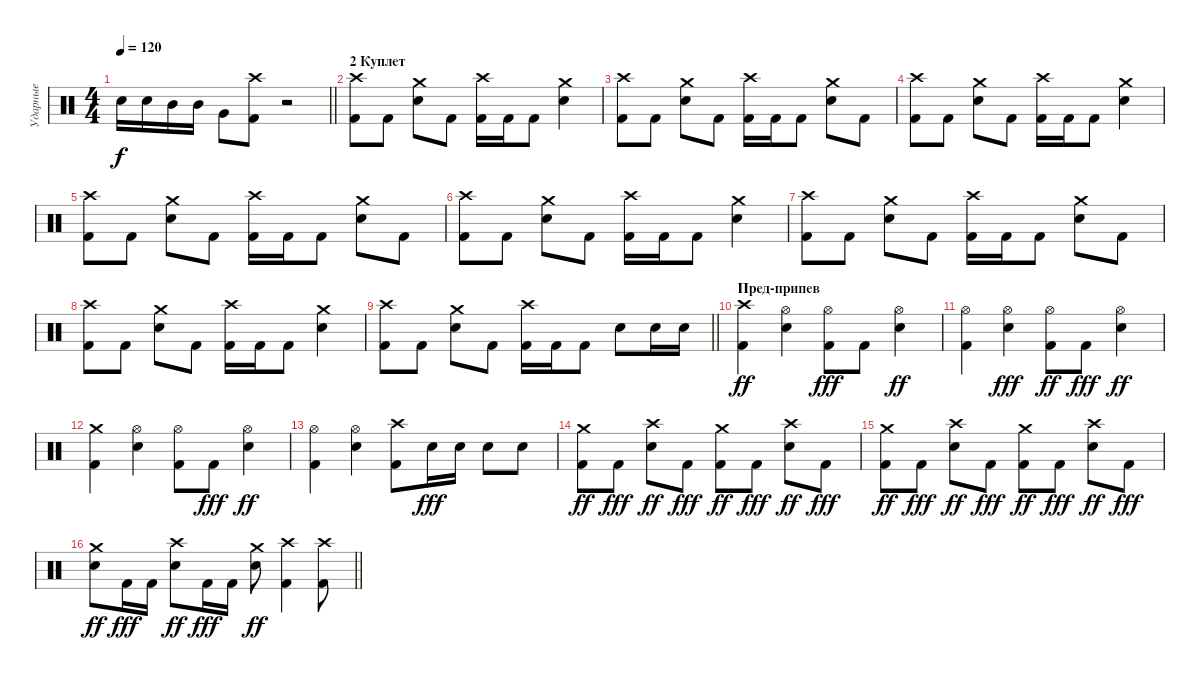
\track ("Ударные" "Ударные") {instrument percussion}
\staff {score}
\articulation defaults
\ts (4 4)
\tempo 120
\clef neutral
\barLineRight lightlight
\ks c "Snare (hit) 2".16{dy f} "Snare (hit) 2".16 "Mid Tom (hit)".16 "Mid Tom (hit)".16 "Very Low Tom (hit)".8
("Kick (hit) 2" "Crash high (hit)").8 r.2 |
\section ("" "2 Куплет")
("Kick (hit) 2" "Crash high (hit)").8 "Kick (hit) 2".8 ("Snare (hit) 2" "Crash medium (hit)").8 "Kick (hit) 2".8 ("Kick (hit) 2" "Crash high (hit)").16 "Kick (hit) 2".16 "Kick (hit) 2".8 ("Snare (hit) 2" "Crash medium (hit)").4 |
("Kick (hit) 2" "Crash high (hit)").8 "Kick (hit) 2".8 ("Snare (hit) 2" "Crash medium (hit)").8 "Kick (hit) 2".8 ("Kick (hit) 2" "Crash high (hit)").16 "Kick (hit) 2".16 "Kick (hit) 2".8 ("Snare (hit) 2" "Crash medium (hit)").8 "Kick (hit) 2".8 |
("Kick (hit) 2" "Crash high (hit)").8 "Kick (hit) 2".8 ("Snare (hit) 2" "Crash medium (hit)").8 "Kick (hit) 2".8 ("Kick (hit) 2" "Crash high (hit)").16 "Kick (hit) 2".16 "Kick (hit) 2".8 ("Snare (hit) 2" "Crash medium (hit)").4 |
("Kick (hit) 2" "Crash high (hit)").8 "Kick (hit) 2".8 ("Snare (hit) 2" "Crash medium (hit)").8 "Kick (hit) 2".8 ("Kick (hit) 2" "Crash high (hit)").16 "Kick (hit) 2".16 "Kick (hit) 2".8 ("Snare (hit) 2" "Crash medium (hit)").8 "Kick (hit) 2".8 |
("Kick (hit) 2" "Crash high (hit)").8 "Kick (hit) 2".8 ("Snare (hit) 2" "Crash medium (hit)").8 "Kick (hit) 2".8 ("Kick (hit) 2" "Crash high (hit)").16 "Kick (hit) 2".16 "Kick (hit) 2".8 ("Snare (hit) 2" "Crash medium (hit)").4 |
("Kick (hit) 2" "Crash high (hit)").8 "Kick (hit) 2".8 ("Snare (hit) 2" "Crash medium (hit)").8 "Kick (hit) 2".8 ("Kick (hit) 2" "Crash high (hit)").16 "Kick (hit) 2".16 "Kick (hit) 2".8 ("Snare (hit) 2" "Crash medium (hit)").8 "Kick (hit) 2".8 |
("Kick (hit) 2" "Crash high (hit)").8 "Kick (hit) 2".8 ("Snare (hit) 2" "Crash medium (hit)").8 "Kick (hit) 2".8 ("Kick (hit) 2" "Crash high (hit)").16 "Kick (hit) 2".16 "Kick (hit) 2".8 ("Snare (hit) 2" "Crash medium (hit)").4 |
\barLineRight lightlight
("Kick (hit) 2" "Crash high (hit)").8 "Kick (hit) 2".8 ("Snare (hit) 2" "Crash medium (hit)").8 "Kick (hit) 2".8 ("Kick (hit) 2" "Crash high (hit)").16 "Kick (hit) 2".16 "Kick (hit) 2".8 "Snare (hit) 2".8 "Snare (hit) 2".16 "Snare (hit) 2".16 |
\section ("" "Пред-припев")
("Kick (hit) 2" "Crash high (hit)").4{dy ff} ("Snare (hit) 2" "Hi-Hat (open)").4 ("Kick (hit) 2" "Hi-Hat (open)").8{dy fff} "Kick (hit) 2".8 ("Snare (hit) 2" "Hi-Hat (open)").4{dy ff} |
("Kick (hit) 2" "Hi-Hat (open)").4 ("Snare (hit) 2" "Hi-Hat (open)").4{dy fff} ("Kick (hit) 2" "Hi-Hat (open)").8{dy ff} "Kick (hit) 2".8{dy fff} ("Snare (hit) 2" "Hi-Hat (open)").4{dy ff} |
("Kick (hit) 2" "Crash medium (hit)").4 ("Snare (hit) 2" "Hi-Hat (open)").4 ("Kick (hit) 2" "Hi-Hat (open)").8 "Kick (hit) 2".8{dy fff} ("Snare (hit) 2" "Hi-Hat (open)").4{dy ff} |
("Kick (hit) 2" "Hi-Hat (open)").4 ("Snare (hit) 2" "Hi-Hat (open)").4 ("Kick (hit) 2" "Crash high (hit)").8 "Snare (hit) 2".16{dy fff} "Snare (hit) 2".16 "Snare (hit) 2".8 "Snare (hit) 2".8 |
("Kick (hit) 2" "Crash medium (hit)").8{dy ff} "Kick (hit) 2".8{dy fff} ("Snare (hit) 2" "Crash high (hit)").8{dy ff} "Kick (hit) 2".8{dy fff} ("Kick (hit) 2" "Crash medium (hit)").8{dy ff} "Kick (hit) 2".8{dy fff} ("Snare (hit) 2" "Crash high (hit)").8{dy ff} "Kick (hit) 2".8{dy fff} |
("Kick (hit) 2" "Crash medium (hit)").8{dy ff} "Kick (hit) 2".8{dy fff} ("Snare (hit) 2" "Crash high (hit)").8{dy ff} "Kick (hit) 2".8{dy fff} ("Kick (hit) 2" "Crash medium (hit)").8{dy ff} "Kick (hit) 2".8{dy fff} ("Snare (hit) 2" "Crash high (hit)").8{dy ff} "Kick (hit) 2".8{dy fff} |
\barLineRight lightlight
("Snare (hit) 2" "Crash medium (hit)").8{dy ff} "Kick (hit) 2".16{dy fff} "Kick (hit) 2".16 ("Snare (hit) 2" "Crash high (hit)").8{dy ff} "Kick (hit) 2".16{dy fff} "Kick (hit) 2".16 ("Snare (hit) 2" "Crash medium (hit)").8{dy ff} ("Kick (hit) 2" "Crash high (hit)").4 ("Kick (hit) 2" "Crash high (hit)").8
